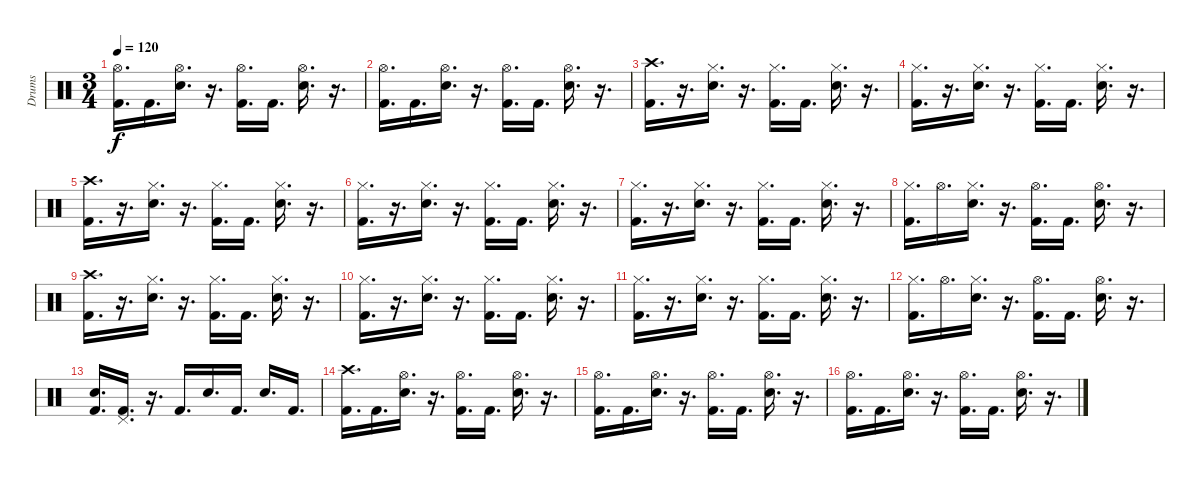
\track ("Drums" "Drums") {instrument percussion}
\staff {score}
\articulation defaults
\ts (3 4)
\tempo 120
\clef neutral
\ks c
("Hi-Hat (open)" "Kick (hit) 2").16{d dy f} "Kick (hit) 2".16{d} ("Hi-Hat (open)" "Electric Snare (hit)").16{d} r.16{d} ("Hi-Hat (open)" "Kick (hit) 2").16{d} "Kick (hit) 2".16{d} ("Hi-Hat (open)" "Electric Snare (hit)").16{d} r.16{d} |
("Hi-Hat (open)" "Kick (hit) 2").16{d} "Kick (hit) 2".16{d} ("Hi-Hat (open)" "Electric Snare (hit)").16{d} r.16{d} ("Hi-Hat (open)" "Kick (hit) 2").16{d} "Kick (hit) 2".16{d} ("Hi-Hat (open)" "Electric Snare (hit)").16{d} r.16{d} |
("Crash high (hit)" "Kick (hit) 2").16{d} r.16{d} ("Hi-Hat (closed)" "Electric Snare (hit)").16{d} r.16{d} ("Hi-Hat (closed)" "Kick (hit) 2").16{d} "Kick (hit) 2".16{d} ("Hi-Hat (closed)" "Electric Snare (hit)").16{d} r.16{d} |
("Hi-Hat (closed)" "Kick (hit) 2").16{d} r.16{d} ("Hi-Hat (closed)" "Electric Snare (hit)").16{d} r.16{d} ("Hi-Hat (closed)" "Kick (hit) 2").16{d} "Kick (hit) 2".16{d} ("Hi-Hat (closed)" "Electric Snare (hit)").16{d} r.16{d} |
("Crash high (hit)" "Kick (hit) 2").16{d} r.16{d} ("Hi-Hat (closed)" "Electric Snare (hit)").16{d} r.16{d} ("Hi-Hat (closed)" "Kick (hit) 2").16{d} "Kick (hit) 2".16{d} ("Hi-Hat (closed)" "Electric Snare (hit)").16{d} r.16{d} |
("Hi-Hat (closed)" "Kick (hit) 2").16{d} r.16{d} ("Hi-Hat (closed)" "Electric Snare (hit)").16{d} r.16{d} ("Hi-Hat (closed)" "Kick (hit) 2").16{d} "Kick (hit) 2".16{d} ("Hi-Hat (closed)" "Electric Snare (hit)").16{d} r.16{d} |
("Hi-Hat (closed)" "Kick (hit) 2").16{d} r.16{d} ("Hi-Hat (closed)" "Electric Snare (hit)").16{d} r.16{d} ("Hi-Hat (closed)" "Kick (hit) 2").16{d} "Kick (hit) 2".16{d} ("Hi-Hat (closed)" "Electric Snare (hit)").16{d} r.16{d} |
("Hi-Hat (closed)" "Kick (hit) 2").16{d} "Hi-Hat (open)".16{d} ("Hi-Hat (closed)" "Electric Snare (hit)").16{d} r.16{d} ("Hi-Hat (open)" "Kick (hit) 2").16{d} "Kick (hit) 2".16{d} ("Hi-Hat (open)" "Electric Snare (hit)").16{d} r.16{d} |
("Crash high (hit)" "Kick (hit) 2").16{d} r.16{d} ("Hi-Hat (closed)" "Electric Snare (hit)").16{d} r.16{d} ("Hi-Hat (closed)" "Kick (hit) 2").16{d} "Kick (hit) 2".16{d} ("Hi-Hat (closed)" "Electric Snare (hit)").16{d} r.16{d} |
("Hi-Hat (closed)" "Kick (hit) 2").16{d} r.16{d} ("Hi-Hat (closed)" "Electric Snare (hit)").16{d} r.16{d} ("Hi-Hat (closed)" "Kick (hit) 2").16{d} "Kick (hit) 2".16{d} ("Hi-Hat (closed)" "Electric Snare (hit)").16{d} r.16{d} |
("Hi-Hat (closed)" "Kick (hit) 2").16{d} r.16{d} ("Hi-Hat (closed)" "Electric Snare (hit)").16{d} r.16{d} ("Hi-Hat (closed)" "Kick (hit) 2").16{d} "Kick (hit) 2".16{d} ("Hi-Hat (closed)" "Electric Snare (hit)").16{d} r.16{d} |
("Hi-Hat (closed)" "Kick (hit) 2").16{d} "Hi-Hat (open)".16{d} ("Hi-Hat (closed)" "Electric Snare (hit)").16{d} r.16{d} ("Hi-Hat (open)" "Kick (hit) 2").16{d} "Kick (hit) 2".16{d} ("Hi-Hat (open)" "Electric Snare (hit)").16{d} r.16{d} |
("Electric Snare (hit)" "Kick (hit) 2").16{d} ("Pedal Hi-Hat (hit)" "Kick (hit) 2").16{d} r.16{d} "Kick (hit) 2".16{d} "Electric Snare (hit)".16{d} "Kick (hit) 2".16{d} "Electric Snare (hit)".16{d} "Kick (hit) 2".16{d} |
("Crash high (hit)" "Kick (hit) 2").16{d} "Kick (hit) 2".16{d} ("Hi-Hat (open)" "Electric Snare (hit)").16{d} r.16{d} ("Hi-Hat (open)" "Kick (hit) 2").16{d} "Kick (hit) 2".16{d} ("Hi-Hat (open)" "Electric Snare (hit)").16{d} r.16{d} |
("Hi-Hat (open)" "Kick (hit) 2").16{d} "Kick (hit) 2".16{d} ("Hi-Hat (open)" "Electric Snare (hit)").16{d} r.16{d} ("Hi-Hat (open)" "Kick (hit) 2").16{d} "Kick (hit) 2".16{d} ("Hi-Hat (open)" "Electric Snare (hit)").16{d} r.16{d} |
("Hi-Hat (open)" "Kick (hit) 2").16{d} "Kick (hit) 2".16{d} ("Hi-Hat (open)" "Electric Snare (hit)").16{d} r.16{d} ("Hi-Hat (open)" "Kick (hit) 2").16{d} "Kick (hit) 2".16{d} ("Hi-Hat (open)" "Electric Snare (hit)").16{d} r.16{d}
